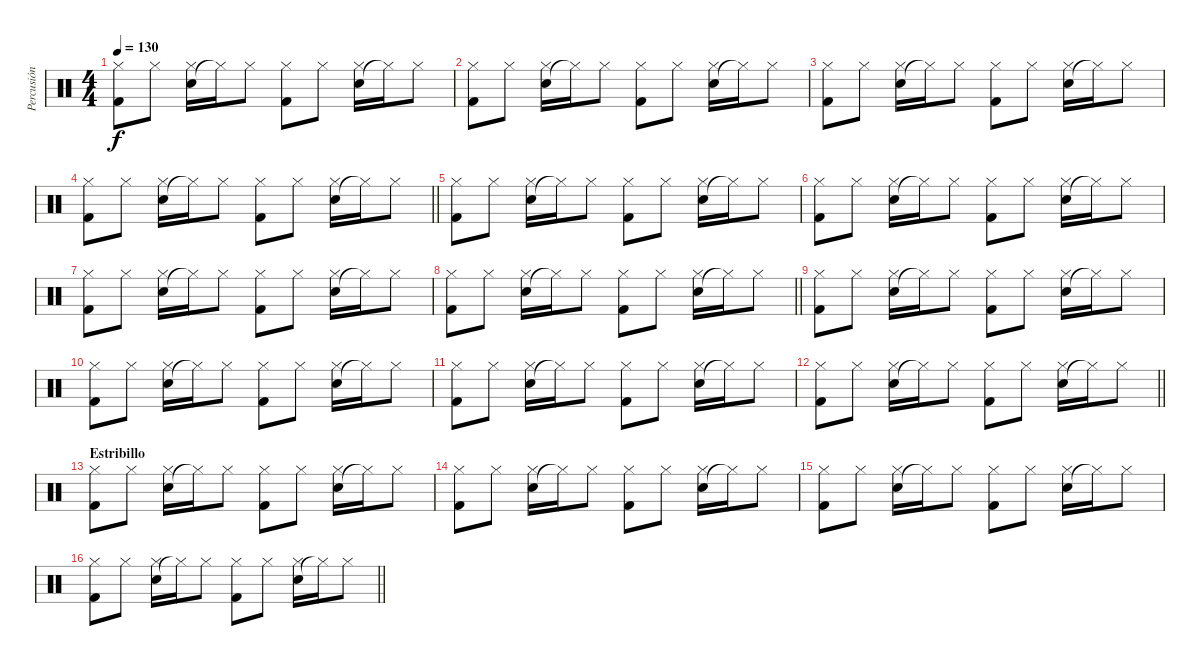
\track ("Percusión" "Percusión") {instrument percussion}
\staff {score}
\articulation defaults
\ts (4 4)
\tempo 130
\clef neutral
\ks c
("Kick (hit) 2" "Hi-Hat (closed)").8{dy f} "Hi-Hat (closed)".8 ("Snare (hit) 2" "Hi-Hat (closed)").16 "Hi-Hat (closed)"{t}.16 "Hi-Hat (closed)".8 ("Kick (hit) 2" "Hi-Hat (closed)").8 "Hi-Hat (closed)".8 ("Snare (hit) 2" "Hi-Hat (closed)").16 "Hi-Hat (closed)"{t}.16 "Hi-Hat (closed)".8 |
("Kick (hit) 2" "Hi-Hat (closed)").8 "Hi-Hat (closed)".8 ("Snare (hit) 2" "Hi-Hat (closed)").16 "Hi-Hat (closed)"{t}.16 "Hi-Hat (closed)".8 ("Kick (hit) 2" "Hi-Hat (closed)").8 "Hi-Hat (closed)".8 ("Snare (hit) 2" "Hi-Hat (closed)").16 "Hi-Hat (closed)"{t}.16 "Hi-Hat (closed)".8 |
("Kick (hit) 2" "Hi-Hat (closed)").8 "Hi-Hat (closed)".8 ("Snare (hit) 2" "Hi-Hat (closed)").16 "Hi-Hat (closed)"{t}.16 "Hi-Hat (closed)".8 ("Kick (hit) 2" "Hi-Hat (closed)").8 "Hi-Hat (closed)".8 ("Snare (hit) 2" "Hi-Hat (closed)").16 "Hi-Hat (closed)"{t}.16 "Hi-Hat (closed)".8 |
\barLineRight lightlight
("Kick (hit) 2" "Hi-Hat (closed)").8 "Hi-Hat (closed)".8 ("Snare (hit) 2" "Hi-Hat (closed)").16 "Hi-Hat (closed)"{t}.16 "Hi-Hat (closed)".8 ("Kick (hit) 2" "Hi-Hat (closed)").8 "Hi-Hat (closed)".8 ("Snare (hit) 2" "Hi-Hat (closed)").16 "Hi-Hat (closed)"{t}.16 "Hi-Hat (closed)".8 |
("Kick (hit) 2" "Hi-Hat (closed)").8 "Hi-Hat (closed)".8 ("Snare (hit) 2" "Hi-Hat (closed)").16 "Hi-Hat (closed)"{t}.16 "Hi-Hat (closed)".8 ("Kick (hit) 2" "Hi-Hat (closed)").8 "Hi-Hat (closed)".8 ("Snare (hit) 2" "Hi-Hat (closed)").16 "Hi-Hat (closed)"{t}.16 "Hi-Hat (closed)".8 |
("Kick (hit) 2" "Hi-Hat (closed)").8 "Hi-Hat (closed)".8 ("Snare (hit) 2" "Hi-Hat (closed)").16 "Hi-Hat (closed)"{t}.16 "Hi-Hat (closed)".8 ("Kick (hit) 2" "Hi-Hat (closed)").8 "Hi-Hat (closed)".8 ("Snare (hit) 2" "Hi-Hat (closed)").16 "Hi-Hat (closed)"{t}.16 "Hi-Hat (closed)".8 |
("Kick (hit) 2" "Hi-Hat (closed)").8 "Hi-Hat (closed)".8 ("Snare (hit) 2" "Hi-Hat (closed)").16 "Hi-Hat (closed)"{t}.16 "Hi-Hat (closed)".8 ("Kick (hit) 2" "Hi-Hat (closed)").8 "Hi-Hat (closed)".8 ("Snare (hit) 2" "Hi-Hat (closed)").16 "Hi-Hat (closed)"{t}.16 "Hi-Hat (closed)".8 |
\barLineRight lightlight
("Kick (hit) 2" "Hi-Hat (closed)").8 "Hi-Hat (closed)".8 ("Snare (hit) 2" "Hi-Hat (closed)").16 "Hi-Hat (closed)"{t}.16 "Hi-Hat (closed)".8 ("Kick (hit) 2" "Hi-Hat (closed)").8 "Hi-Hat (closed)".8 ("Snare (hit) 2" "Hi-Hat (closed)").16 "Hi-Hat (closed)"{t}.16 "Hi-Hat (closed)".8 |
("Kick (hit) 2" "Hi-Hat (closed)").8 "Hi-Hat (closed)".8 ("Snare (hit) 2" "Hi-Hat (closed)").16 "Hi-Hat (closed)"{t}.16 "Hi-Hat (closed)".8 ("Kick (hit) 2" "Hi-Hat (closed)").8 "Hi-Hat (closed)".8 ("Snare (hit) 2" "Hi-Hat (closed)").16 "Hi-Hat (closed)"{t}.16 "Hi-Hat (closed)".8 |
("Kick (hit) 2" "Hi-Hat (closed)").8 "Hi-Hat (closed)".8 ("Snare (hit) 2" "Hi-Hat (closed)").16 "Hi-Hat (closed)"{t}.16 "Hi-Hat (closed)".8 ("Kick (hit) 2" "Hi-Hat (closed)").8 "Hi-Hat (closed)".8 ("Snare (hit) 2" "Hi-Hat (closed)").16 "Hi-Hat (closed)"{t}.16 "Hi-Hat (closed)".8 |
("Kick (hit) 2" "Hi-Hat (closed)").8 "Hi-Hat (closed)".8 ("Snare (hit) 2" "Hi-Hat (closed)").16 "Hi-Hat (closed)"{t}.16 "Hi-Hat (closed)".8 ("Kick (hit) 2" "Hi-Hat (closed)").8 "Hi-Hat (closed)".8 ("Snare (hit) 2" "Hi-Hat (closed)").16 "Hi-Hat (closed)"{t}.16 "Hi-Hat (closed)".8 |
\barLineRight lightlight
("Kick (hit) 2" "Hi-Hat (closed)").8 "Hi-Hat (closed)".8 ("Snare (hit) 2" "Hi-Hat (closed)").16 "Hi-Hat (closed)"{t}.16 "Hi-Hat (closed)".8 ("Kick (hit) 2" "Hi-Hat (closed)").8 "Hi-Hat (closed)".8 ("Snare (hit) 2" "Hi-Hat (closed)").16 "Hi-Hat (closed)"{t}.16 "Hi-Hat (closed)".8 |
\section ("" "Estribillo")
("Kick (hit) 2" "Hi-Hat (closed)").8 "Hi-Hat (closed)".8 ("Snare (hit) 2" "Hi-Hat (closed)").16 "Hi-Hat (closed)"{t}.16 "Hi-Hat (closed)".8 ("Kick (hit) 2" "Hi-Hat (closed)").8 "Hi-Hat (closed)".8 ("Snare (hit) 2" "Hi-Hat (closed)").16 "Hi-Hat (closed)"{t}.16 "Hi-Hat (closed)".8 |
("Kick (hit) 2" "Hi-Hat (closed)").8 "Hi-Hat (closed)".8 ("Snare (hit) 2" "Hi-Hat (closed)").16 "Hi-Hat (closed)"{t}.16 "Hi-Hat (closed)".8 ("Kick (hit) 2" "Hi-Hat (closed)").8 "Hi-Hat (closed)".8 ("Snare (hit) 2" "Hi-Hat (closed)").16 "Hi-Hat (closed)"{t}.16 "Hi-Hat (closed)".8 |
("Kick (hit) 2" "Hi-Hat (closed)").8 "Hi-Hat (closed)".8 ("Snare (hit) 2" "Hi-Hat (closed)").16 "Hi-Hat (closed)"{t}.16 "Hi-Hat (closed)".8 ("Kick (hit) 2" "Hi-Hat (closed)").8 "Hi-Hat (closed)".8 ("Snare (hit) 2" "Hi-Hat (closed)").16 "Hi-Hat (closed)"{t}.16 "Hi-Hat (closed)".8 |
\barLineRight lightlight
("Kick (hit) 2" "Hi-Hat (closed)").8 "Hi-Hat (closed)".8 ("Snare (hit) 2" "Hi-Hat (closed)").16 "Hi-Hat (closed)"{t}.16 "Hi-Hat (closed)".8 ("Kick (hit) 2" "Hi-Hat (closed)").8 "Hi-Hat (closed)".8 ("Snare (hit) 2" "Hi-Hat (closed)").16 "Hi-Hat (closed)"{t}.16 "Hi-Hat (closed)".8
